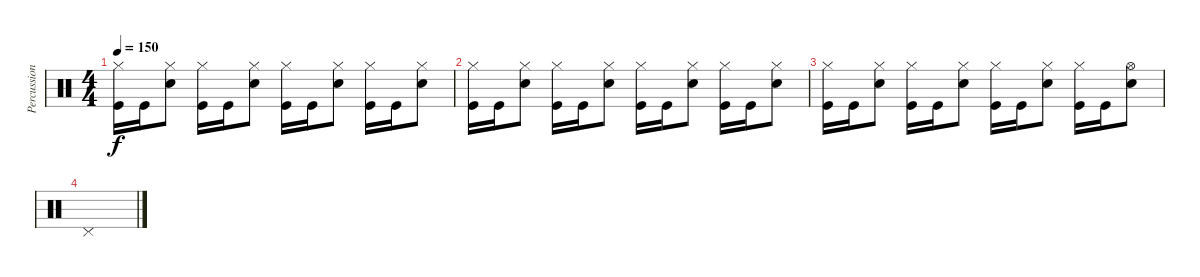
\track ("Percussion" "Percussion") {instrument percussion}
\staff {score}
\articulation defaults
\ts (4 4)
\tempo 150
\clef neutral
\ks c
("Hi-Hat (closed)" "Kick (hit)").16{dy f} "Kick (hit)".16 ("Hi-Hat (closed)" "Electric Snare (hit)").8 ("Hi-Hat (closed)" "Kick (hit)").16 "Kick (hit)".16 ("Hi-Hat (closed)" "Electric Snare (hit)").8 ("Hi-Hat (closed)" "Kick (hit)").16 "Kick (hit)".16 ("Hi-Hat (closed)" "Electric Snare (hit)").8 ("Hi-Hat (closed)" "Kick (hit)").16 "Kick (hit)".16 ("Hi-Hat (closed)" "Electric Snare (hit)").8 |
("Hi-Hat (closed)" "Kick (hit)").16 "Kick (hit)".16 ("Hi-Hat (closed)" "Electric Snare (hit)").8 ("Hi-Hat (closed)" "Kick (hit)").16 "Kick (hit)".16 ("Hi-Hat (closed)" "Electric Snare (hit)").8 ("Hi-Hat (closed)" "Kick (hit)").16 "Kick (hit)".16 ("Hi-Hat (closed)" "Electric Snare (hit)").8 ("Hi-Hat (closed)" "Kick (hit)").16 "Kick (hit)".16 ("Hi-Hat (closed)" "Electric Snare (hit)").8 |
("Hi-Hat (closed)" "Kick (hit)").16 "Kick (hit)".16 ("Hi-Hat (closed)" "Electric Snare (hit)").8 ("Hi-Hat (closed)" "Kick (hit)").16 "Kick (hit)".16 ("Hi-Hat (closed)" "Electric Snare (hit)").8 ("Hi-Hat (closed)" "Kick (hit)").16 "Kick (hit)".16 ("Hi-Hat (closed)" "Electric Snare (hit)").8 ("Hi-Hat (closed)" "Kick (hit)").16 "Kick (hit)".16 ("Hi-Hat (open)" "Electric Snare (hit)").8 |
"Pedal Hi-Hat (hit)".1
